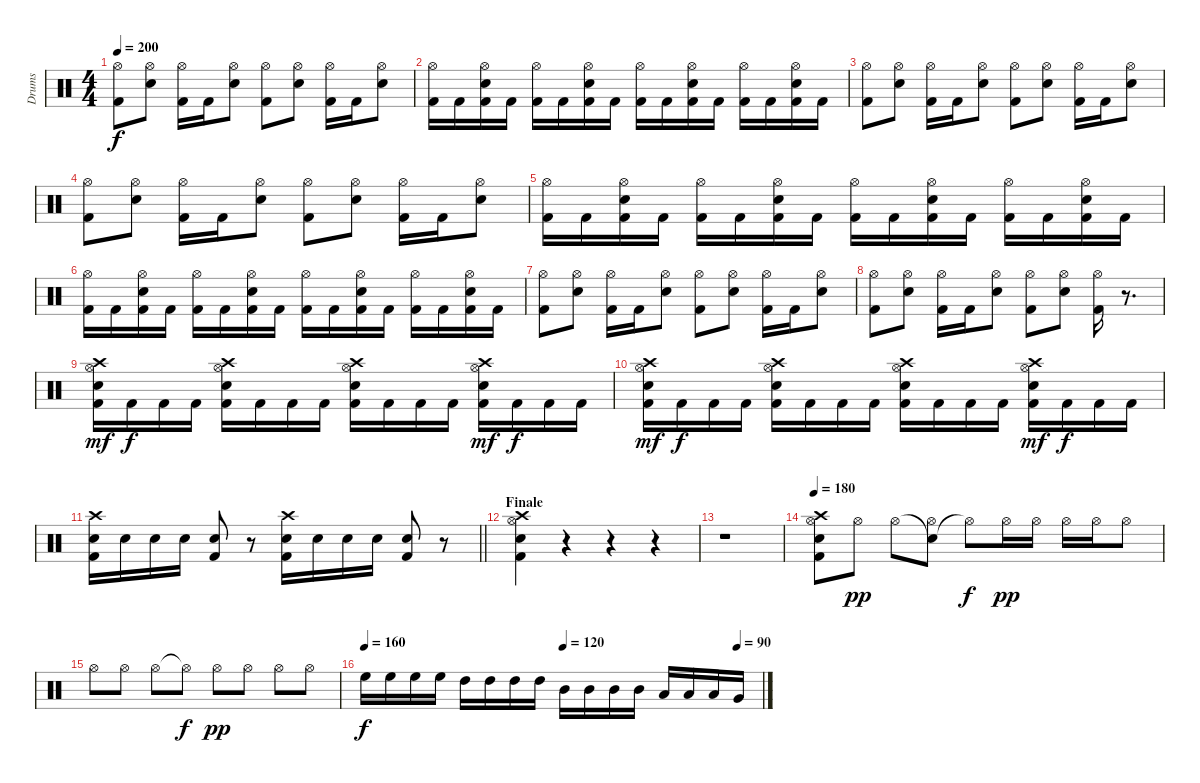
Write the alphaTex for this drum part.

\track ("Drums" "Drums") {instrument percussion}
\staff {score}
\articulation defaults
\ts (4 4)
\tempo 200
\clef neutral
\ks c
("Hi-Hat (open)" "Kick (hit) 2").8{dy f} ("Hi-Hat (open)" "Snare (hit) 2").8 ("Hi-Hat (open)" "Kick (hit) 2").16 "Kick (hit) 2".16 ("Hi-Hat (open)" "Snare (hit) 2").8 ("Hi-Hat (open)" "Kick (hit) 2").8 ("Hi-Hat (open)" "Snare (hit) 2").8 ("Hi-Hat (open)" "Kick (hit) 2").16 "Kick (hit) 2".16 ("Hi-Hat (open)" "Snare (hit) 2").8 |
("Hi-Hat (open)" "Kick (hit) 2").16 "Kick (hit) 2".16 ("Hi-Hat (open)" "Snare (hit) 2" "Kick (hit) 2").16 "Kick (hit) 2".16 ("Hi-Hat (open)" "Kick (hit) 2").16 "Kick (hit) 2".16 ("Hi-Hat (open)" "Snare (hit) 2" "Kick (hit) 2").16 "Kick (hit) 2".16 ("Hi-Hat (open)" "Kick (hit) 2").16 "Kick (hit) 2".16 ("Hi-Hat (open)" "Snare (hit) 2" "Kick (hit) 2").16 "Kick (hit) 2".16 ("Hi-Hat (open)" "Kick (hit) 2").16 "Kick (hit) 2".16 ("Hi-Hat (open)" "Snare (hit) 2" "Kick (hit) 2").16 "Kick (hit) 2".16 |
("Hi-Hat (open)" "Kick (hit) 2").8 ("Hi-Hat (open)" "Snare (hit) 2").8 ("Hi-Hat (open)" "Kick (hit) 2").16 "Kick (hit) 2".16 ("Hi-Hat (open)" "Snare (hit) 2").8 ("Hi-Hat (open)" "Kick (hit) 2").8 ("Hi-Hat (open)" "Snare (hit) 2").8 ("Hi-Hat (open)" "Kick (hit) 2").16 "Kick (hit) 2".16 ("Hi-Hat (open)" "Snare (hit) 2").8 |
("Hi-Hat (open)" "Kick (hit) 2").8 ("Hi-Hat (open)" "Snare (hit) 2").8 ("Hi-Hat (open)" "Kick (hit) 2").16 "Kick (hit) 2".16 ("Hi-Hat (open)" "Snare (hit) 2").8 ("Hi-Hat (open)" "Kick (hit) 2").8 ("Hi-Hat (open)" "Snare (hit) 2").8 ("Hi-Hat (open)" "Kick (hit) 2").16 "Kick (hit) 2".16 ("Hi-Hat (open)" "Snare (hit) 2").8 |
("Hi-Hat (open)" "Kick (hit) 2").16 "Kick (hit) 2".16 ("Hi-Hat (open)" "Snare (hit) 2" "Kick (hit) 2").16 "Kick (hit) 2".16 ("Hi-Hat (open)" "Kick (hit) 2").16 "Kick (hit) 2".16 ("Hi-Hat (open)" "Snare (hit) 2" "Kick (hit) 2").16 "Kick (hit) 2".16 ("Hi-Hat (open)" "Kick (hit) 2").16 "Kick (hit) 2".16 ("Hi-Hat (open)" "Snare (hit) 2" "Kick (hit) 2").16 "Kick (hit) 2".16 ("Hi-Hat (open)" "Kick (hit) 2").16 "Kick (hit) 2".16 ("Hi-Hat (open)" "Snare (hit) 2" "Kick (hit) 2").16 "Kick (hit) 2".16 |
("Hi-Hat (open)" "Kick (hit) 2").16 "Kick (hit) 2".16 ("Hi-Hat (open)" "Snare (hit) 2" "Kick (hit) 2").16 "Kick (hit) 2".16 ("Hi-Hat (open)" "Kick (hit) 2").16 "Kick (hit) 2".16 ("Hi-Hat (open)" "Snare (hit) 2" "Kick (hit) 2").16 "Kick (hit) 2".16 ("Hi-Hat (open)" "Kick (hit) 2").16 "Kick (hit) 2".16 ("Hi-Hat (open)" "Snare (hit) 2" "Kick (hit) 2").16 "Kick (hit) 2".16 ("Hi-Hat (open)" "Kick (hit) 2").16 "Kick (hit) 2".16 ("Hi-Hat (open)" "Snare (hit) 2" "Kick (hit) 2").16 "Kick (hit) 2".16 |
("Hi-Hat (open)" "Kick (hit) 2").8 ("Hi-Hat (open)" "Snare (hit) 2").8 ("Hi-Hat (open)" "Kick (hit) 2").16 "Kick (hit) 2".16 ("Hi-Hat (open)" "Snare (hit) 2").8 ("Hi-Hat (open)" "Kick (hit) 2").8 ("Hi-Hat (open)" "Snare (hit) 2").8 ("Hi-Hat (open)" "Kick (hit) 2").16 "Kick (hit) 2".16 ("Hi-Hat (open)" "Snare (hit) 2").8 |
("Hi-Hat (open)" "Kick (hit) 2").8 ("Hi-Hat (open)" "Snare (hit) 2").8 ("Hi-Hat (open)" "Kick (hit) 2").16 "Kick (hit) 2".16 ("Hi-Hat (open)" "Snare (hit) 2").8 ("Hi-Hat (open)" "Kick (hit) 2").8 ("Hi-Hat (open)" "Snare (hit) 2").8 ("Hi-Hat (open)" "Kick (hit) 2").16 r.8{d} |
("Crash high (hit)" "Hi-Hat (open)" "Snare (hit) 2" "Kick (hit) 2").16{dy mf} "Kick (hit) 2".16{dy f} "Kick (hit) 2".16 "Kick (hit) 2".16 ("Crash high (hit)" "Hi-Hat (open)" "Snare (hit) 2" "Kick (hit) 2").16 "Kick (hit) 2".16 "Kick (hit) 2".16 "Kick (hit) 2".16 ("Crash high (hit)" "Hi-Hat (open)" "Snare (hit) 2" "Kick (hit) 2").16 "Kick (hit) 2".16 "Kick (hit) 2".16 "Kick (hit) 2".16 ("Crash high (hit)" "Hi-Hat (open)" "Snare (hit) 2" "Kick (hit) 2").16{dy mf} "Kick (hit) 2".16{dy f} "Kick (hit) 2".16 "Kick (hit) 2".16 |
("Crash high (hit)" "Hi-Hat (open)" "Snare (hit) 2" "Kick (hit) 2").16{dy mf} "Kick (hit) 2".16{dy f} "Kick (hit) 2".16 "Kick (hit) 2".16 ("Crash high (hit)" "Hi-Hat (open)" "Snare (hit) 2" "Kick (hit) 2").16 "Kick (hit) 2".16 "Kick (hit) 2".16 "Kick (hit) 2".16 ("Crash high (hit)" "Hi-Hat (open)" "Snare (hit) 2" "Kick (hit) 2").16 "Kick (hit) 2".16 "Kick (hit) 2".16 "Kick (hit) 2".16 ("Crash high (hit)" "Hi-Hat (open)" "Snare (hit) 2" "Kick (hit) 2").16{dy mf} "Kick (hit) 2".16{dy f} "Kick (hit) 2".16 "Kick (hit) 2".16 |
\barLineRight lightlight
("Crash high (hit)" "Snare (hit) 2" "Kick (hit) 2").16 "Snare (hit) 2".16 "Snare (hit) 2".16 "Snare (hit) 2".16 ("Snare (hit) 2" "Kick (hit) 2").8 r.8 ("Crash high (hit)" "Snare (hit) 2" "Kick (hit) 2").16 "Snare (hit) 2".16 "Snare (hit) 2".16 "Snare (hit) 2".16 ("Snare (hit) 2" "Kick (hit) 2").8 r.8 |
\section ("" "Finale")
("Crash high (hit)" "Hi-Hat (open)" "Snare (hit) 2" "Kick (hit) 2").4 r.4 r.4 r.4 |
r.1 |
\tempo 180
("Crash high (hit)" "Hi-Hat (open)" "Snare (hit) 2" "Kick (hit) 2").8 "Hi-Hat (open)".8{dy pp} "Hi-Hat (open)".8 ("Snare (hit)"{t} "Hi-Hat (open)").8 "Hi-Hat (open)"{t}.8{dy f} "Hi-Hat (open)".16{dy pp} "Hi-Hat (open)".16 "Hi-Hat (open)".16 "Hi-Hat (open)".16 "Hi-Hat (open)".8 |
"Hi-Hat (open)".8 "Hi-Hat (open)".8 "Hi-Hat (open)".8 "Hi-Hat (open)"{t}.8{dy f} "Hi-Hat (open)".8{dy pp} "Hi-Hat (open)".8 "Hi-Hat (open)".8 "Hi-Hat (open)".8 |
\tempo 160
\tempo (120 0.5)
\tempo (90 0.9375)
"High Floor Tom (hit)".16{dy f} "High Floor Tom (hit)".16 "High Floor Tom (hit)".16 "High Floor Tom (hit)".16 "High Tom (hit)".16 "High Tom (hit)".16 "High Tom (hit)".16 "High Tom (hit)".16 "Mid Tom (hit)".16 "Mid Tom (hit)".16 "Mid Tom (hit)".16 "Mid Tom (hit)".16 "Low Tom (hit)".16 "Low Tom (hit)".16 "Low Tom (hit)".16 "Very Low Tom (hit)".16
